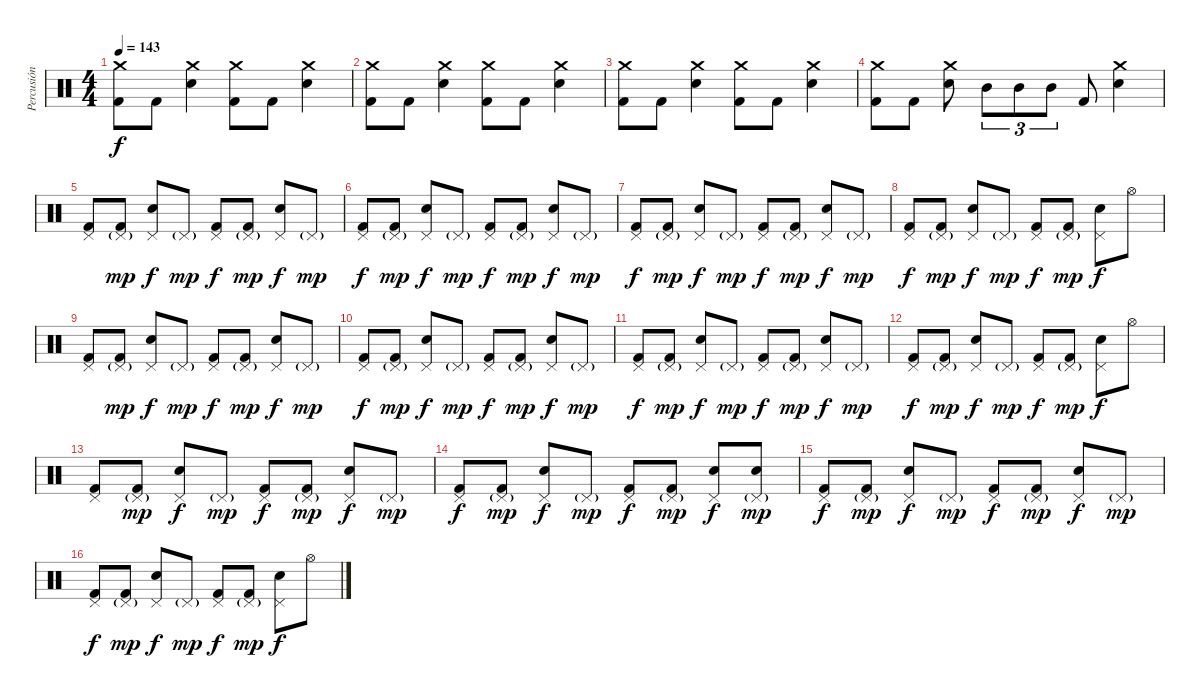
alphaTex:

\track ("Percusión" "Percusión") {instrument percussion}
\staff {score}
\articulation defaults
\ts (4 4)
\tempo 143
\clef neutral
\ks c
("Crash medium (hit)" "Kick (hit) 2").8{dy f} "Kick (hit) 2".8 ("Crash medium (hit)" "Snare (hit) 2").4 ("Crash medium (hit)" "Kick (hit) 2").8 "Kick (hit) 2".8 ("Crash medium (hit)" "Snare (hit) 2").4 |
("Crash medium (hit)" "Kick (hit) 2").8 "Kick (hit) 2".8 ("Crash medium (hit)" "Snare (hit) 2").4 ("Crash medium (hit)" "Kick (hit) 2").8 "Kick (hit) 2".8 ("Crash medium (hit)" "Snare (hit) 2").4 |
("Crash medium (hit)" "Kick (hit) 2").8 "Kick (hit) 2".8 ("Crash medium (hit)" "Snare (hit) 2").4 ("Crash medium (hit)" "Kick (hit) 2").8 "Kick (hit) 2".8 ("Crash medium (hit)" "Snare (hit) 2").4 |
("Crash medium (hit)" "Kick (hit) 2").8 "Kick (hit) 2".8 ("Crash medium (hit)" "Snare (hit) 2").8 "Mid Tom (hit)".8{tu (3 2)} "Mid Tom (hit)".8{tu (3 2)} "Mid Tom (hit)".8{tu (3 2)} "Kick (hit) 2".8 ("Crash medium (hit)" "Snare (hit) 2").4 |
("Pedal Hi-Hat (hit)" "Kick (hit) 2").8 ("Pedal Hi-Hat (hit)"{g} "Kick (hit) 2").8{dy mp} ("Pedal Hi-Hat (hit)" "Snare (hit) 2").8{dy f} "Pedal Hi-Hat (hit)"{g}.8{dy mp} ("Pedal Hi-Hat (hit)" "Kick (hit) 2").8{dy f} ("Pedal Hi-Hat (hit)"{g} "Kick (hit) 2").8{dy mp} ("Pedal Hi-Hat (hit)" "Snare (hit) 2").8{dy f} "Pedal Hi-Hat (hit)"{g}.8{dy mp} |
("Pedal Hi-Hat (hit)" "Kick (hit) 2").8{dy f} ("Pedal Hi-Hat (hit)"{g} "Kick (hit) 2").8{dy mp} ("Pedal Hi-Hat (hit)" "Snare (hit) 2").8{dy f} "Pedal Hi-Hat (hit)"{g}.8{dy mp} ("Pedal Hi-Hat (hit)" "Kick (hit) 2").8{dy f} ("Pedal Hi-Hat (hit)"{g} "Kick (hit) 2").8{dy mp} ("Pedal Hi-Hat (hit)" "Snare (hit) 2").8{dy f} "Pedal Hi-Hat (hit)"{g}.8{dy mp} |
("Pedal Hi-Hat (hit)" "Kick (hit) 2").8{dy f} ("Pedal Hi-Hat (hit)"{g} "Kick (hit) 2").8{dy mp} ("Pedal Hi-Hat (hit)" "Snare (hit) 2").8{dy f} "Pedal Hi-Hat (hit)"{g}.8{dy mp} ("Pedal Hi-Hat (hit)" "Kick (hit) 2").8{dy f} ("Pedal Hi-Hat (hit)"{g} "Kick (hit) 2").8{dy mp} ("Pedal Hi-Hat (hit)" "Snare (hit) 2").8{dy f} "Pedal Hi-Hat (hit)"{g}.8{dy mp} |
("Pedal Hi-Hat (hit)" "Kick (hit) 2").8{dy f} ("Pedal Hi-Hat (hit)"{g} "Kick (hit) 2").8{dy mp} ("Pedal Hi-Hat (hit)" "Snare (hit) 2").8{dy f} "Pedal Hi-Hat (hit)"{g}.8{dy mp} ("Pedal Hi-Hat (hit)" "Kick (hit) 2").8{dy f} ("Pedal Hi-Hat (hit)"{g} "Kick (hit) 2").8{dy mp} ("Pedal Hi-Hat (hit)" "Snare (hit) 2").8{dy f} "Hi-Hat (open)".8 |
("Pedal Hi-Hat (hit)" "Kick (hit) 2").8 ("Pedal Hi-Hat (hit)"{g} "Kick (hit) 2").8{dy mp} ("Pedal Hi-Hat (hit)" "Snare (hit) 2").8{dy f} "Pedal Hi-Hat (hit)"{g}.8{dy mp} ("Pedal Hi-Hat (hit)" "Kick (hit) 2").8{dy f} ("Pedal Hi-Hat (hit)"{g} "Kick (hit) 2").8{dy mp} ("Pedal Hi-Hat (hit)" "Snare (hit) 2").8{dy f} "Pedal Hi-Hat (hit)"{g}.8{dy mp} |
("Pedal Hi-Hat (hit)" "Kick (hit) 2").8{dy f} ("Pedal Hi-Hat (hit)"{g} "Kick (hit) 2").8{dy mp} ("Pedal Hi-Hat (hit)" "Snare (hit) 2").8{dy f} "Pedal Hi-Hat (hit)"{g}.8{dy mp} ("Pedal Hi-Hat (hit)" "Kick (hit) 2").8{dy f} ("Pedal Hi-Hat (hit)"{g} "Kick (hit) 2").8{dy mp} ("Pedal Hi-Hat (hit)" "Snare (hit) 2").8{dy f} "Pedal Hi-Hat (hit)"{g}.8{dy mp} |
("Pedal Hi-Hat (hit)" "Kick (hit) 2").8{dy f} ("Pedal Hi-Hat (hit)"{g} "Kick (hit) 2").8{dy mp} ("Pedal Hi-Hat (hit)" "Snare (hit) 2").8{dy f} "Pedal Hi-Hat (hit)"{g}.8{dy mp} ("Pedal Hi-Hat (hit)" "Kick (hit) 2").8{dy f} ("Pedal Hi-Hat (hit)"{g} "Kick (hit) 2").8{dy mp} ("Pedal Hi-Hat (hit)" "Snare (hit) 2").8{dy f} "Pedal Hi-Hat (hit)"{g}.8{dy mp} |
("Pedal Hi-Hat (hit)" "Kick (hit) 2").8{dy f} ("Pedal Hi-Hat (hit)"{g} "Kick (hit) 2").8{dy mp} ("Pedal Hi-Hat (hit)" "Snare (hit) 2").8{dy f} "Pedal Hi-Hat (hit)"{g}.8{dy mp} ("Pedal Hi-Hat (hit)" "Kick (hit) 2").8{dy f} ("Pedal Hi-Hat (hit)"{g} "Kick (hit) 2").8{dy mp} ("Pedal Hi-Hat (hit)" "Snare (hit) 2").8{dy f} "Hi-Hat (open)".8 |
("Pedal Hi-Hat (hit)" "Kick (hit) 2").8 ("Pedal Hi-Hat (hit)"{g} "Kick (hit) 2").8{dy mp} ("Pedal Hi-Hat (hit)" "Snare (hit) 2").8{dy f} "Pedal Hi-Hat (hit)"{g}.8{dy mp} ("Pedal Hi-Hat (hit)" "Kick (hit) 2").8{dy f} ("Pedal Hi-Hat (hit)"{g} "Kick (hit) 2").8{dy mp} ("Pedal Hi-Hat (hit)" "Snare (hit) 2").8{dy f} "Pedal Hi-Hat (hit)"{g}.8{dy mp} |
("Pedal Hi-Hat (hit)" "Kick (hit) 2").8{dy f} ("Pedal Hi-Hat (hit)"{g} "Kick (hit) 2").8{dy mp} ("Pedal Hi-Hat (hit)" "Snare (hit) 2").8{dy f} "Pedal Hi-Hat (hit)"{g}.8{dy mp} ("Pedal Hi-Hat (hit)" "Kick (hit) 2").8{dy f} ("Pedal Hi-Hat (hit)"{g} "Kick (hit) 2").8{dy mp} ("Pedal Hi-Hat (hit)" "Snare (hit) 2").8{dy f} ("Pedal Hi-Hat (hit)"{g} "Snare (hit) 2").8{dy mp} |
("Pedal Hi-Hat (hit)" "Kick (hit) 2").8{dy f} ("Pedal Hi-Hat (hit)"{g} "Kick (hit) 2").8{dy mp} ("Pedal Hi-Hat (hit)" "Snare (hit) 2").8{dy f} "Pedal Hi-Hat (hit)"{g}.8{dy mp} ("Pedal Hi-Hat (hit)" "Kick (hit) 2").8{dy f} ("Pedal Hi-Hat (hit)"{g} "Kick (hit) 2").8{dy mp} ("Pedal Hi-Hat (hit)" "Snare (hit) 2").8{dy f} "Pedal Hi-Hat (hit)"{g}.8{dy mp} |
("Pedal Hi-Hat (hit)" "Kick (hit) 2").8{dy f} ("Pedal Hi-Hat (hit)"{g} "Kick (hit) 2").8{dy mp} ("Pedal Hi-Hat (hit)" "Snare (hit) 2").8{dy f} "Pedal Hi-Hat (hit)"{g}.8{dy mp} ("Pedal Hi-Hat (hit)" "Kick (hit) 2").8{dy f} ("Pedal Hi-Hat (hit)"{g} "Kick (hit) 2").8{dy mp} ("Pedal Hi-Hat (hit)" "Snare (hit) 2").8{dy f} "Hi-Hat (open)".8
